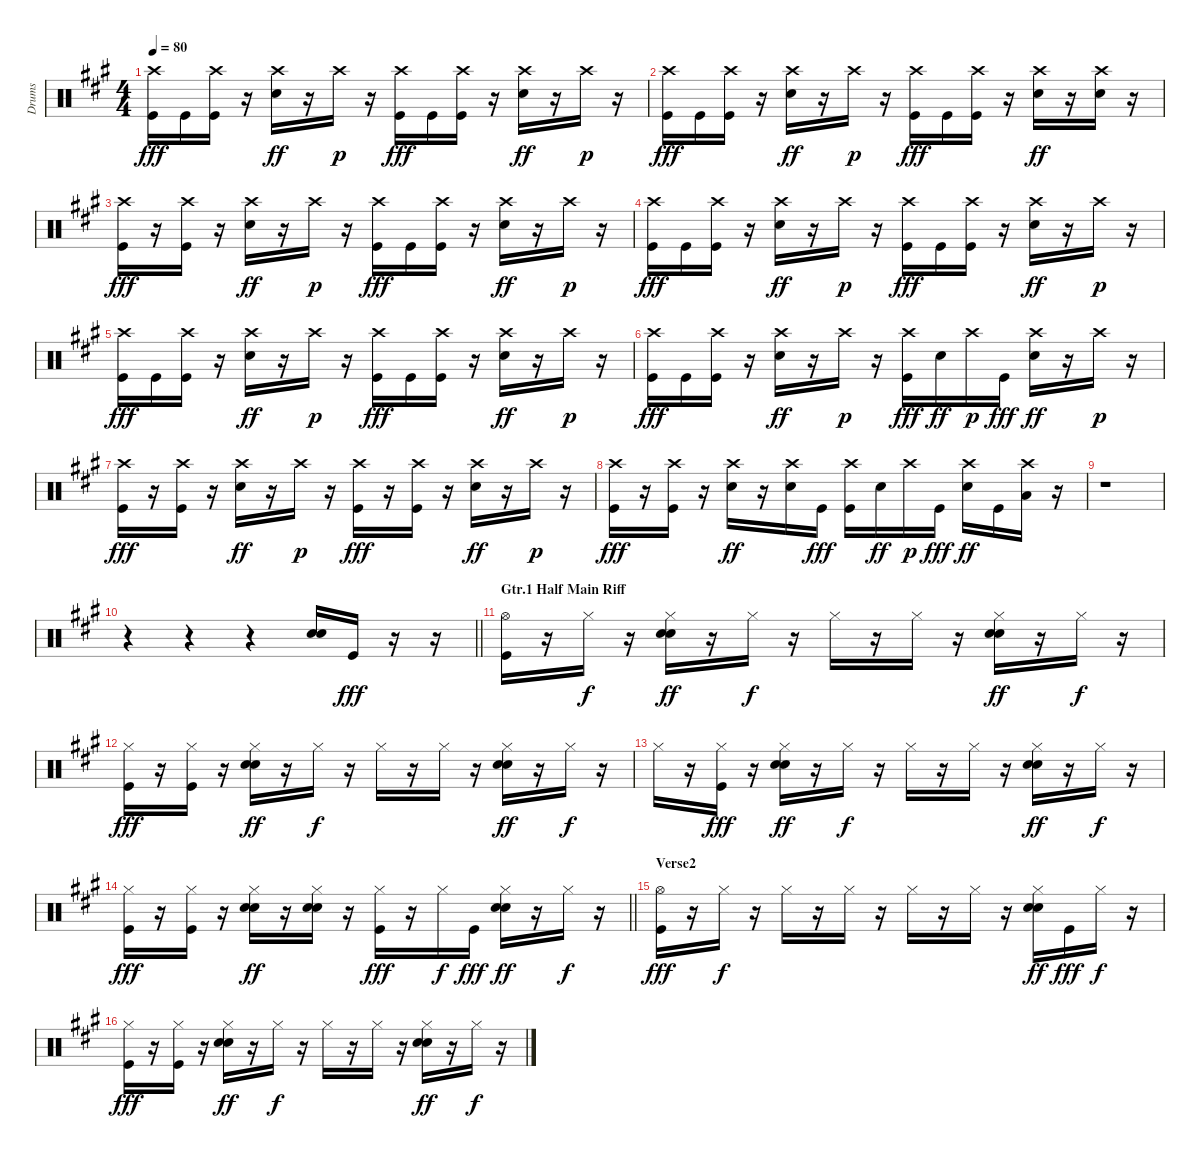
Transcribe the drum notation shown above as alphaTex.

\track ("Drums" "Drums") {instrument percussion}
\staff {score}
\articulation defaults
\ts (4 4)
\tempo 80
\clef neutral
\ks f#minor
("Crash high (hit)" "Kick (hit)").16{dy fff} "Kick (hit)".16 ("Crash high (hit)" "Kick (hit)").16 r.16 ("Crash high (hit)" "Snare (hit) 2").16{dy ff} r.16 "Crash high (hit)".16{dy p} r.16 ("Crash high (hit)" "Kick (hit)").16{dy fff} "Kick (hit)".16 ("Crash high (hit)" "Kick (hit)").16 r.16 ("Crash high (hit)" "Snare (hit) 2").16{dy ff} r.16 "Crash high (hit)".16{dy p} r.16 |
("Crash high (hit)" "Kick (hit)").16{dy fff} "Kick (hit)".16 ("Crash high (hit)" "Kick (hit)").16 r.16 ("Crash high (hit)" "Snare (hit) 2").16{dy ff} r.16 "Crash high (hit)".16{dy p} r.16 ("Crash high (hit)" "Kick (hit)").16{dy fff} "Kick (hit)".16 ("Crash high (hit)" "Kick (hit)").16 r.16 ("Crash high (hit)" "Snare (hit) 2").16{dy ff} r.16 ("Crash high (hit)" "Snare (hit) 2").16 r.16 |
("Crash high (hit)" "Kick (hit)").16{dy fff} r.16 ("Crash high (hit)" "Kick (hit)").16 r.16 ("Crash high (hit)" "Snare (hit) 2").16{dy ff} r.16 "Crash high (hit)".16{dy p} r.16 ("Crash high (hit)" "Kick (hit)").16{dy fff} "Kick (hit)".16 ("Crash high (hit)" "Kick (hit)").16 r.16 ("Crash high (hit)" "Snare (hit) 2").16{dy ff} r.16 "Crash high (hit)".16{dy p} r.16 |
("Crash high (hit)" "Kick (hit)").16{dy fff} "Kick (hit)".16 ("Crash high (hit)" "Kick (hit)").16 r.16 ("Crash high (hit)" "Snare (hit) 2").16{dy ff} r.16 "Crash high (hit)".16{dy p} r.16 ("Crash high (hit)" "Kick (hit)").16{dy fff} "Kick (hit)".16 ("Crash high (hit)" "Kick (hit)").16 r.16 ("Crash high (hit)" "Snare (hit) 2").16{dy ff} r.16 "Crash high (hit)".16{dy p} r.16 |
("Crash high (hit)" "Kick (hit)").16{dy fff} "Kick (hit)".16 ("Crash high (hit)" "Kick (hit)").16 r.16 ("Crash high (hit)" "Snare (hit) 2").16{dy ff} r.16 "Crash high (hit)".16{dy p} r.16 ("Crash high (hit)" "Kick (hit)").16{dy fff} "Kick (hit)".16 ("Crash high (hit)" "Kick (hit)").16 r.16 ("Crash high (hit)" "Snare (hit) 2").16{dy ff} r.16 "Crash high (hit)".16{dy p} r.16 |
("Crash high (hit)" "Kick (hit)").16{dy fff} "Kick (hit)".16 ("Crash high (hit)" "Kick (hit)").16 r.16 ("Crash high (hit)" "Snare (hit) 2").16{dy ff} r.16 "Crash high (hit)".16{dy p} r.16 ("Crash high (hit)" "Kick (hit)").16{dy fff} "Snare (hit) 2".16{dy ff} "Crash high (hit)".16{dy p} "Kick (hit)".16{dy fff} ("Crash high (hit)" "Snare (hit) 2").16{dy ff} r.16 "Crash high (hit)".16{dy p} r.16 |
("Crash high (hit)" "Kick (hit)").16{dy fff} r.16 ("Crash high (hit)" "Kick (hit)").16 r.16 ("Crash high (hit)" "Snare (hit) 2").16{dy ff} r.16 "Crash high (hit)".16{dy p} r.16 ("Crash high (hit)" "Kick (hit)").16{dy fff} r.16 ("Crash high (hit)" "Kick (hit)").16 r.16 ("Crash high (hit)" "Snare (hit) 2").16{dy ff} r.16 "Crash high (hit)".16{dy p} r.16 |
("Crash high (hit)" "Kick (hit)").16{dy fff} r.16 ("Crash high (hit)" "Kick (hit)").16 r.16 ("Crash high (hit)" "Snare (hit) 2").16{dy ff} r.16 ("Crash high (hit)" "Snare (hit) 2").16 "Kick (hit)".16{dy fff} ("Crash high (hit)" "Kick (hit)").16 "Snare (hit) 2".16{dy ff} "Crash high (hit)".16{dy p} "Kick (hit)".16{dy fff} ("Crash high (hit)" "Snare (hit) 2").16{dy ff} "Kick (hit)".16 ("Crash high (hit)" "Low Floor Tom (hit)").16 r.16 |
r.1 |
\barLineRight lightlight
r.4 r.4 r.4 ("Electric Snare (hit)" "Snare (hit) 2").16 "Kick (hit)".16{dy fff} r.16 r.16 |
\section ("" "Gtr.1 Half Main Riff")
\ks a
("Hi-Hat (open)" "Kick (hit)").16 r.16 "Hi-Hat (closed)".16{dy f} r.16 ("Hi-Hat (closed)" "Electric Snare (hit)" "Snare (hit) 2").16{dy ff} r.16 "Hi-Hat (closed)".16{dy f} r.16 "Hi-Hat (closed)".16 r.16 "Hi-Hat (closed)".16 r.16 ("Hi-Hat (closed)" "Electric Snare (hit)" "Snare (hit) 2").16{dy ff} r.16 "Hi-Hat (closed)".16{dy f} r.16 |
\ks f#minor
("Hi-Hat (closed)" "Kick (hit)").16{dy fff} r.16 ("Hi-Hat (closed)" "Kick (hit)").16 r.16 ("Hi-Hat (closed)" "Electric Snare (hit)" "Snare (hit) 2").16{dy ff} r.16 "Hi-Hat (closed)".16{dy f} r.16 "Hi-Hat (closed)".16 r.16 "Hi-Hat (closed)".16 r.16 ("Hi-Hat (closed)" "Electric Snare (hit)" "Snare (hit) 2").16{dy ff} r.16 "Hi-Hat (closed)".16{dy f} r.16 |
"Hi-Hat (closed)".16 r.16 ("Hi-Hat (closed)" "Kick (hit)").16{dy fff} r.16 ("Hi-Hat (closed)" "Electric Snare (hit)" "Snare (hit) 2").16{dy ff} r.16 "Hi-Hat (closed)".16{dy f} r.16 "Hi-Hat (closed)".16 r.16 "Hi-Hat (closed)".16 r.16 ("Hi-Hat (closed)" "Electric Snare (hit)" "Snare (hit) 2").16{dy ff} r.16 "Hi-Hat (closed)".16{dy f} r.16 |
\barLineRight lightlight
("Hi-Hat (closed)" "Kick (hit)").16{dy fff} r.16 ("Hi-Hat (closed)" "Kick (hit)").16 r.16 ("Hi-Hat (closed)" "Electric Snare (hit)" "Snare (hit) 2").16{dy ff} r.16 ("Hi-Hat (closed)" "Electric Snare (hit)" "Snare (hit) 2").16 r.16 ("Hi-Hat (closed)" "Kick (hit)").16{dy fff} r.16 "Hi-Hat (closed)".16{dy f} "Kick (hit)".16{dy fff} ("Hi-Hat (closed)" "Electric Snare (hit)" "Snare (hit) 2").16{dy ff} r.16 "Hi-Hat (closed)".16{dy f} r.16 |
\section ("" "Verse2")
\ks a
("Hi-Hat (open)" "Kick (hit)").16{dy fff} r.16 "Hi-Hat (closed)".16{dy f} r.16 "Hi-Hat (closed)".16 r.16 "Hi-Hat (closed)".16 r.16 "Hi-Hat (closed)".16 r.16 "Hi-Hat (closed)".16 r.16 ("Hi-Hat (closed)" "Electric Snare (hit)" "Snare (hit) 2").16{dy ff} "Kick (hit)".16{dy fff} "Hi-Hat (closed)".16{dy f} r.16 |
\ks f#minor
("Hi-Hat (closed)" "Kick (hit)").16{dy fff} r.16 ("Hi-Hat (closed)" "Kick (hit)").16 r.16 ("Hi-Hat (closed)" "Electric Snare (hit)" "Snare (hit) 2").16{dy ff} r.16 "Hi-Hat (closed)".16{dy f} r.16 "Hi-Hat (closed)".16 r.16 "Hi-Hat (closed)".16 r.16 ("Hi-Hat (closed)" "Electric Snare (hit)" "Snare (hit) 2").16{dy ff} r.16 "Hi-Hat (closed)".16{dy f} r.16
